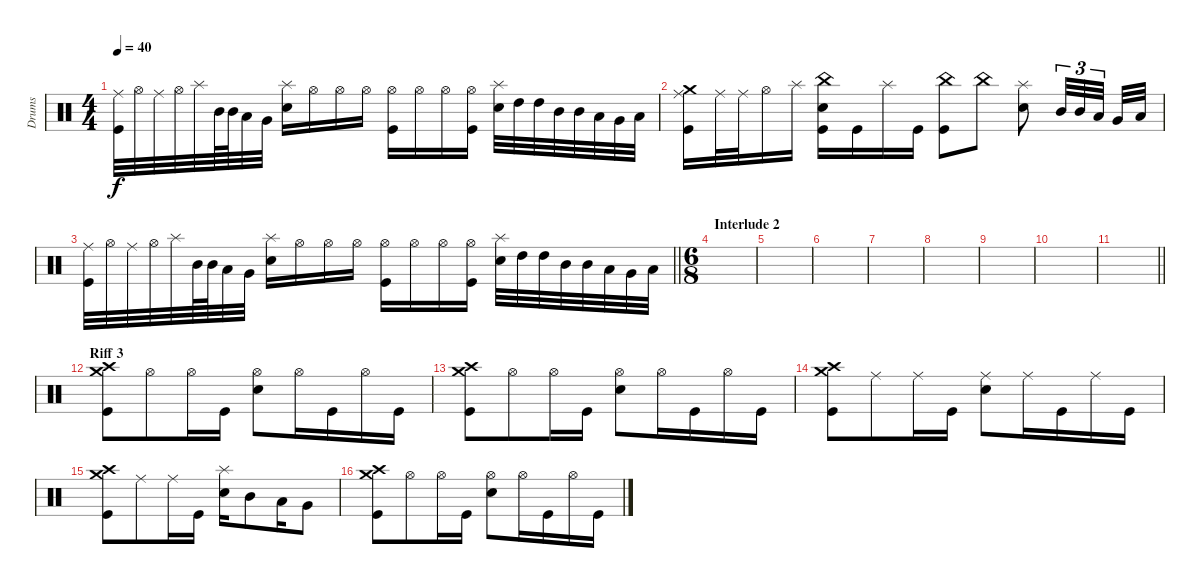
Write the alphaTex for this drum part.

\track ("Drums" "Drums") {instrument percussion}
\staff {score}
\articulation defaults
\ts (4 4)
\tempo 40
\clef neutral
\ks c
("Kick (hit)" "Ride (middle)").32{dy f} "Hi-Hat (open)".32 "Ride (middle)".32 "Hi-Hat (open)".32 "Splash (hit)".32 "Mid Tom (hit)".64 "Mid Tom (hit)".64 "Low Tom (hit)".32 "Very Low Tom (hit)".32 ("Snare (hit) 2" "Splash (hit)").16 "Hi-Hat (open)".16 "Hi-Hat (open)".16 "Hi-Hat (open)".16 ("Hi-Hat (open)" "Kick (hit)").16 "Hi-Hat (open)".16 "Hi-Hat (open)".16 ("Kick (hit)" "Hi-Hat (open)").16 ("Splash (hit)" "Snare (hit) 2").32 "High Tom (hit)".32 "High Tom (hit)".32 "Mid Tom (hit)".32 "Mid Tom (hit)".32 "Low Tom (hit)".32 "Very Low Tom (hit)".32 "Low Floor Tom (hit)".32 |
("Crash medium (hit)" "Kick (hit)" "Ride (middle)").16 "Ride (middle)".32 "Ride (middle)".32 "Hi-Hat (open)".16 "Splash (hit)".16 ("China (hit)" "Snare (hit) 2" "Kick (hit)").16 "Kick (hit)".16 "Splash (hit)".16 "Kick (hit)".16 ("China (hit)" "Kick (hit)").8 "China (hit)".8 ("Snare (hit) 2" "Splash (hit)").8 "Mid Tom (hit)".32{tu (3 2)} "Mid Tom (hit)".32{tu (3 2)} "Low Tom (hit)".32{tu (3 2) beam splitsecondary} "Very Low Tom (hit)".32 "Low Floor Tom (hit)".32 |
\barLineRight lightlight
("Kick (hit)" "Ride (middle)").32 "Hi-Hat (open)".32 "Ride (middle)".32 "Hi-Hat (open)".32 "Splash (hit)".32 "Mid Tom (hit)".64 "Mid Tom (hit)".64 "Low Tom (hit)".32 "Very Low Tom (hit)".32 ("Snare (hit) 2" "Splash (hit)").16 "Hi-Hat (open)".16 "Hi-Hat (open)".16 "Hi-Hat (open)".16 ("Hi-Hat (open)" "Kick (hit)").16 "Hi-Hat (open)".16 "Hi-Hat (open)".16 ("Kick (hit)" "Hi-Hat (open)").16 ("Splash (hit)" "Snare (hit) 2").32 "High Tom (hit)".32 "High Tom (hit)".32 "Mid Tom (hit)".32 "Mid Tom (hit)".32 "Low Tom (hit)".32 "Very Low Tom (hit)".32 "Low Floor Tom (hit)".32 |
\ts (6 8)
\section ("" "Interlude 2")
|
|
|
|
|
|
|
\barLineRight lightlight
|
\section ("" "Riff 3")
("Kick (hit)" "Crash medium (hit)" "Crash high (hit)").8 "Hi-Hat (open)".8 "Hi-Hat (open)".16 "Kick (hit)".16 ("Hi-Hat (open)" "Snare (hit) 2").8 "Hi-Hat (open)".16 "Kick (hit)".16 "Hi-Hat (open)".16 "Kick (hit)".16 |
("Kick (hit)" "Crash medium (hit)" "Crash high (hit)").8 "Hi-Hat (open)".8 "Hi-Hat (open)".16 "Kick (hit)".16 ("Hi-Hat (open)" "Snare (hit) 2").8 "Hi-Hat (open)".16 "Kick (hit)".16 "Hi-Hat (open)".16 "Kick (hit)".16 |
("Kick (hit)" "Crash medium (hit)" "Crash high (hit)").8 "Ride (middle)".8 "Ride (middle)".16 "Kick (hit)".16 ("Ride (middle)" "Snare (hit) 2").8 "Ride (middle)".16 "Kick (hit)".16 "Ride (middle)".16 "Kick (hit)".16 |
("Kick (hit)" "Crash medium (hit)" "Crash high (hit)").8 "Ride (middle)".8 "Ride (middle)".16 "Kick (hit)".16 ("Snare (hit) 2" "Splash (hit)").16 "Mid Tom (hit)".8 "Low Tom (hit)".16 "Very Low Tom (hit)".8 |
("Kick (hit)" "Crash medium (hit)" "Crash high (hit)").8 "Hi-Hat (open)".8 "Hi-Hat (open)".16 "Kick (hit)".16 ("Hi-Hat (open)" "Snare (hit) 2").8 "Hi-Hat (open)".16 "Kick (hit)".16 "Hi-Hat (open)".16 "Kick (hit)".16
